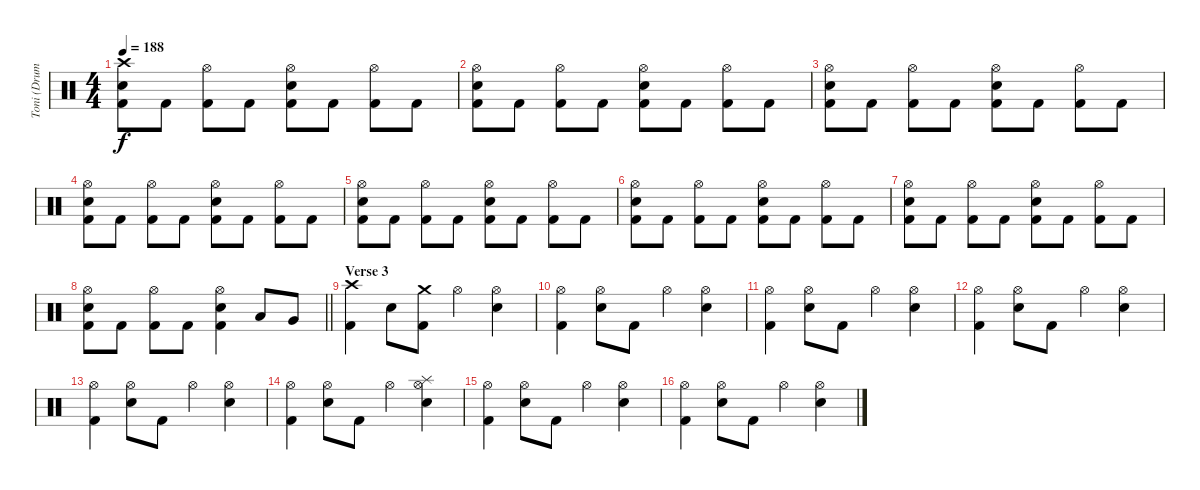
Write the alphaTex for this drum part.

\track ("Toni (Drums)" "Toni (Drum") {instrument percussion}
\staff {score}
\articulation defaults
\ts (4 4)
\tempo 188
\clef neutral
\ks c
("Crash high (hit)" "Electric Snare (hit)" "Kick (hit) 2").8{dy f} "Kick (hit) 2".8 ("Hi-Hat (open)" "Kick (hit) 2").8 "Kick (hit) 2".8 ("Hi-Hat (open)" "Electric Snare (hit)" "Kick (hit) 2").8 "Kick (hit) 2".8 ("Hi-Hat (open)" "Kick (hit) 2").8 "Kick (hit) 2".8 |
("Hi-Hat (open)" "Electric Snare (hit)" "Kick (hit) 2").8 "Kick (hit) 2".8 ("Hi-Hat (open)" "Kick (hit) 2").8 "Kick (hit) 2".8 ("Hi-Hat (open)" "Electric Snare (hit)" "Kick (hit) 2").8 "Kick (hit) 2".8 ("Hi-Hat (open)" "Kick (hit) 2").8 "Kick (hit) 2".8 |
("Hi-Hat (open)" "Electric Snare (hit)" "Kick (hit) 2").8 "Kick (hit) 2".8 ("Hi-Hat (open)" "Kick (hit) 2").8 "Kick (hit) 2".8 ("Hi-Hat (open)" "Electric Snare (hit)" "Kick (hit) 2").8 "Kick (hit) 2".8 ("Hi-Hat (open)" "Kick (hit) 2").8 "Kick (hit) 2".8 |
("Hi-Hat (open)" "Electric Snare (hit)" "Kick (hit) 2").8 "Kick (hit) 2".8 ("Hi-Hat (open)" "Kick (hit) 2").8 "Kick (hit) 2".8 ("Hi-Hat (open)" "Electric Snare (hit)" "Kick (hit) 2").8 "Kick (hit) 2".8 ("Hi-Hat (open)" "Kick (hit) 2").8 "Kick (hit) 2".8 |
("Hi-Hat (open)" "Electric Snare (hit)" "Kick (hit) 2").8 "Kick (hit) 2".8 ("Hi-Hat (open)" "Kick (hit) 2").8 "Kick (hit) 2".8 ("Hi-Hat (open)" "Electric Snare (hit)" "Kick (hit) 2").8 "Kick (hit) 2".8 ("Hi-Hat (open)" "Kick (hit) 2").8 "Kick (hit) 2".8 |
("Hi-Hat (open)" "Electric Snare (hit)" "Kick (hit) 2").8 "Kick (hit) 2".8 ("Hi-Hat (open)" "Kick (hit) 2").8 "Kick (hit) 2".8 ("Hi-Hat (open)" "Electric Snare (hit)" "Kick (hit) 2").8 "Kick (hit) 2".8 ("Hi-Hat (open)" "Kick (hit) 2").8 "Kick (hit) 2".8 |
("Hi-Hat (open)" "Electric Snare (hit)" "Kick (hit) 2").8 "Kick (hit) 2".8 ("Hi-Hat (open)" "Kick (hit) 2").8 "Kick (hit) 2".8 ("Hi-Hat (open)" "Electric Snare (hit)" "Kick (hit) 2").8 "Kick (hit) 2".8 ("Hi-Hat (open)" "Kick (hit) 2").8 "Kick (hit) 2".8 |
\barLineRight lightlight
("Hi-Hat (open)" "Electric Snare (hit)" "Kick (hit) 2").8 "Kick (hit) 2".8 ("Hi-Hat (open)" "Kick (hit) 2").8 "Kick (hit) 2".8 ("Hi-Hat (open)" "Electric Snare (hit)" "Kick (hit) 2").4 "Low Tom (hit)".8 "Very Low Tom (hit)".8 |
\section ("" "Verse 3")
("Crash high (hit)" "Kick (hit) 2").4 "Electric Snare (hit)".8 ("Crash medium (hit)" "Kick (hit) 2").8 "Hi-Hat (open)".4 ("Hi-Hat (open)" "Electric Snare (hit)").4 |
("Hi-Hat (open)" "Kick (hit) 2").4 ("Hi-Hat (open)" "Electric Snare (hit)").8 "Kick (hit) 2".8 "Hi-Hat (open)".4 ("Hi-Hat (open)" "Electric Snare (hit)").4 |
("Hi-Hat (open)" "Kick (hit) 2").4 ("Hi-Hat (open)" "Electric Snare (hit)").8 "Kick (hit) 2".8 "Hi-Hat (open)".4 ("Hi-Hat (open)" "Electric Snare (hit)").4 |
("Hi-Hat (open)" "Kick (hit) 2").4 ("Hi-Hat (open)" "Electric Snare (hit)").8 "Kick (hit) 2".8 "Hi-Hat (open)".4 ("Hi-Hat (open)" "Electric Snare (hit)").4 |
("Hi-Hat (open)" "Kick (hit) 2").4 ("Hi-Hat (open)" "Electric Snare (hit)").8 "Kick (hit) 2".8 "Hi-Hat (open)".4 ("Hi-Hat (open)" "Electric Snare (hit)").4 |
("Hi-Hat (open)" "Kick (hit) 2").4 ("Hi-Hat (open)" "Electric Snare (hit)").8 "Kick (hit) 2".8 "Hi-Hat (open)".4 ("Splash (hit)" "Hi-Hat (open)" "Electric Snare (hit)").4 |
("Hi-Hat (open)" "Kick (hit) 2").4 ("Hi-Hat (open)" "Electric Snare (hit)").8 "Kick (hit) 2".8 "Hi-Hat (open)".4 ("Hi-Hat (open)" "Electric Snare (hit)").4 |
("Hi-Hat (open)" "Kick (hit) 2").4 ("Hi-Hat (open)" "Electric Snare (hit)").8 "Kick (hit) 2".8 "Hi-Hat (open)".4 ("Hi-Hat (open)" "Electric Snare (hit)").4
